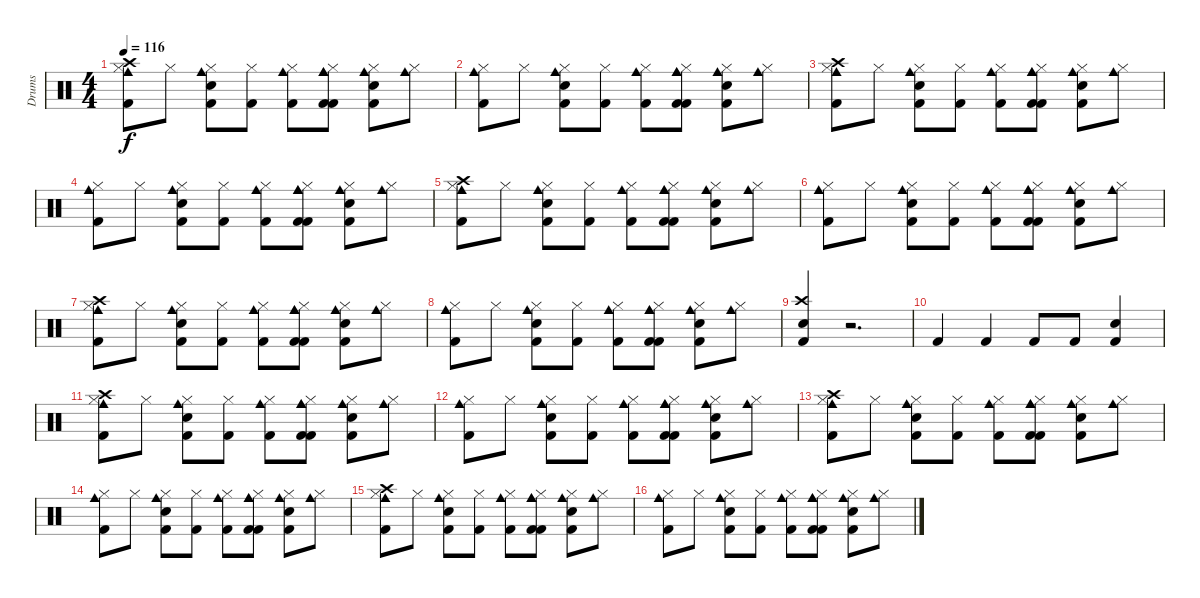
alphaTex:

\track ("Drums" "Drums") {instrument percussion}
\staff {score}
\articulation defaults
\ts (4 4)
\tempo 116
\clef neutral
\ks c
("Kick (hit) 2" "Hi-Hat (closed)" "Crash high (hit)" "Cowbell medium (hit)").8{dy f} "Hi-Hat (closed)".8 ("Snare (hit) 2" "Kick (hit) 2" "Hi-Hat (closed)" "Cowbell medium (hit)").8 ("Kick (hit) 2" "Hi-Hat (closed)").8 ("Hi-Hat (closed)" "Kick (hit) 2" "Cowbell medium (hit)").8 ("Kick (hit) 2" "Hi-Hat (closed)" "Cowbell medium (hit)" "Kick (hit) 2" "Cowbell medium (hit)").8 ("Kick (hit) 2" "Snare (hit) 2" "Hi-Hat (closed)" "Cowbell medium (hit)").8 ("Hi-Hat (closed)" "Cowbell medium (hit)").8 |
("Kick (hit) 2" "Hi-Hat (closed)" "Cowbell medium (hit)").8 "Hi-Hat (closed)".8 ("Snare (hit) 2" "Kick (hit) 2" "Hi-Hat (closed)" "Cowbell medium (hit)").8 ("Kick (hit) 2" "Hi-Hat (closed)").8 ("Hi-Hat (closed)" "Kick (hit) 2" "Cowbell medium (hit)").8 ("Kick (hit) 2" "Hi-Hat (closed)" "Cowbell medium (hit)" "Kick (hit) 2" "Cowbell medium (hit)").8 ("Kick (hit) 2" "Snare (hit) 2" "Hi-Hat (closed)" "Cowbell medium (hit)").8 ("Hi-Hat (closed)" "Cowbell medium (hit)").8 |
("Kick (hit) 2" "Hi-Hat (closed)" "Crash high (hit)" "Cowbell medium (hit)").8 "Hi-Hat (closed)".8 ("Snare (hit) 2" "Kick (hit) 2" "Hi-Hat (closed)" "Cowbell medium (hit)").8 ("Kick (hit) 2" "Hi-Hat (closed)").8 ("Hi-Hat (closed)" "Kick (hit) 2" "Cowbell medium (hit)").8 ("Kick (hit) 2" "Hi-Hat (closed)" "Cowbell medium (hit)" "Kick (hit) 2" "Cowbell medium (hit)").8 ("Kick (hit) 2" "Snare (hit) 2" "Hi-Hat (closed)" "Cowbell medium (hit)").8 ("Hi-Hat (closed)" "Cowbell medium (hit)").8 |
("Kick (hit) 2" "Hi-Hat (closed)" "Cowbell medium (hit)").8 "Hi-Hat (closed)".8 ("Snare (hit) 2" "Kick (hit) 2" "Hi-Hat (closed)" "Cowbell medium (hit)").8 ("Kick (hit) 2" "Hi-Hat (closed)").8 ("Hi-Hat (closed)" "Kick (hit) 2" "Cowbell medium (hit)").8 ("Kick (hit) 2" "Hi-Hat (closed)" "Cowbell medium (hit)" "Kick (hit) 2" "Cowbell medium (hit)").8 ("Kick (hit) 2" "Snare (hit) 2" "Hi-Hat (closed)" "Cowbell medium (hit)").8 ("Hi-Hat (closed)" "Cowbell medium (hit)").8 |
("Kick (hit) 2" "Hi-Hat (closed)" "Crash high (hit)" "Cowbell medium (hit)").8 "Hi-Hat (closed)".8 ("Snare (hit) 2" "Kick (hit) 2" "Hi-Hat (closed)" "Cowbell medium (hit)").8 ("Kick (hit) 2" "Hi-Hat (closed)").8 ("Hi-Hat (closed)" "Kick (hit) 2" "Cowbell medium (hit)").8 ("Kick (hit) 2" "Hi-Hat (closed)" "Cowbell medium (hit)" "Kick (hit) 2" "Cowbell medium (hit)").8 ("Kick (hit) 2" "Snare (hit) 2" "Hi-Hat (closed)" "Cowbell medium (hit)").8 ("Hi-Hat (closed)" "Cowbell medium (hit)").8 |
("Kick (hit) 2" "Hi-Hat (closed)" "Cowbell medium (hit)").8 "Hi-Hat (closed)".8 ("Snare (hit) 2" "Kick (hit) 2" "Hi-Hat (closed)" "Cowbell medium (hit)").8 ("Kick (hit) 2" "Hi-Hat (closed)").8 ("Hi-Hat (closed)" "Kick (hit) 2" "Cowbell medium (hit)").8 ("Kick (hit) 2" "Hi-Hat (closed)" "Cowbell medium (hit)" "Kick (hit) 2" "Cowbell medium (hit)").8 ("Kick (hit) 2" "Snare (hit) 2" "Hi-Hat (closed)" "Cowbell medium (hit)").8 ("Hi-Hat (closed)" "Cowbell medium (hit)").8 |
("Kick (hit) 2" "Hi-Hat (closed)" "Cowbell medium (hit)" "Crash high (hit)").8 "Hi-Hat (closed)".8 ("Snare (hit) 2" "Kick (hit) 2" "Hi-Hat (closed)" "Cowbell medium (hit)").8 ("Kick (hit) 2" "Hi-Hat (closed)").8 ("Hi-Hat (closed)" "Kick (hit) 2" "Cowbell medium (hit)").8 ("Kick (hit) 2" "Hi-Hat (closed)" "Cowbell medium (hit)" "Kick (hit) 2" "Cowbell medium (hit)").8 ("Kick (hit) 2" "Snare (hit) 2" "Hi-Hat (closed)" "Cowbell medium (hit)").8 ("Hi-Hat (closed)" "Cowbell medium (hit)").8 |
("Kick (hit) 2" "Hi-Hat (closed)" "Cowbell medium (hit)").8 "Hi-Hat (closed)".8 ("Snare (hit) 2" "Kick (hit) 2" "Hi-Hat (closed)" "Cowbell medium (hit)").8 ("Kick (hit) 2" "Hi-Hat (closed)").8 ("Hi-Hat (closed)" "Kick (hit) 2" "Cowbell medium (hit)").8 ("Kick (hit) 2" "Hi-Hat (closed)" "Cowbell medium (hit)" "Kick (hit) 2" "Cowbell medium (hit)").8 ("Kick (hit) 2" "Snare (hit) 2" "Hi-Hat (closed)" "Cowbell medium (hit)").8 ("Hi-Hat (closed)" "Cowbell medium (hit)").8 |
("Crash high (hit)" "Electric Snare (hit)" "Kick (hit) 2").4 r.2{d} |
"Kick (hit) 2".4 "Kick (hit) 2".4 "Kick (hit) 2".8 "Kick (hit) 2".8 ("Kick (hit) 2" "Electric Snare (hit)").4 |
("Kick (hit) 2" "Hi-Hat (closed)" "Crash high (hit)" "Cowbell medium (hit)").8 "Hi-Hat (closed)".8 ("Snare (hit) 2" "Kick (hit) 2" "Hi-Hat (closed)" "Cowbell medium (hit)").8 ("Kick (hit) 2" "Hi-Hat (closed)").8 ("Hi-Hat (closed)" "Kick (hit) 2" "Cowbell medium (hit)").8 ("Kick (hit) 2" "Hi-Hat (closed)" "Cowbell medium (hit)" "Kick (hit) 2" "Cowbell medium (hit)").8 ("Kick (hit) 2" "Snare (hit) 2" "Hi-Hat (closed)" "Cowbell medium (hit)").8 ("Hi-Hat (closed)" "Cowbell medium (hit)").8 |
("Kick (hit) 2" "Hi-Hat (closed)" "Cowbell medium (hit)").8 "Hi-Hat (closed)".8 ("Snare (hit) 2" "Kick (hit) 2" "Hi-Hat (closed)" "Cowbell medium (hit)").8 ("Kick (hit) 2" "Hi-Hat (closed)").8 ("Hi-Hat (closed)" "Kick (hit) 2" "Cowbell medium (hit)").8 ("Kick (hit) 2" "Hi-Hat (closed)" "Cowbell medium (hit)" "Kick (hit) 2" "Cowbell medium (hit)").8 ("Kick (hit) 2" "Snare (hit) 2" "Hi-Hat (closed)" "Cowbell medium (hit)").8 ("Hi-Hat (closed)" "Cowbell medium (hit)").8 |
("Kick (hit) 2" "Hi-Hat (closed)" "Crash high (hit)" "Cowbell medium (hit)").8 "Hi-Hat (closed)".8 ("Snare (hit) 2" "Kick (hit) 2" "Hi-Hat (closed)" "Cowbell medium (hit)").8 ("Kick (hit) 2" "Hi-Hat (closed)").8 ("Hi-Hat (closed)" "Kick (hit) 2" "Cowbell medium (hit)").8 ("Kick (hit) 2" "Hi-Hat (closed)" "Cowbell medium (hit)" "Kick (hit) 2" "Cowbell medium (hit)").8 ("Kick (hit) 2" "Snare (hit) 2" "Hi-Hat (closed)" "Cowbell medium (hit)").8 ("Hi-Hat (closed)" "Cowbell medium (hit)").8 |
("Kick (hit) 2" "Hi-Hat (closed)" "Cowbell medium (hit)").8 "Hi-Hat (closed)".8 ("Snare (hit) 2" "Kick (hit) 2" "Hi-Hat (closed)" "Cowbell medium (hit)").8 ("Kick (hit) 2" "Hi-Hat (closed)").8 ("Hi-Hat (closed)" "Kick (hit) 2" "Cowbell medium (hit)").8 ("Kick (hit) 2" "Hi-Hat (closed)" "Cowbell medium (hit)" "Kick (hit) 2" "Cowbell medium (hit)").8 ("Kick (hit) 2" "Snare (hit) 2" "Hi-Hat (closed)" "Cowbell medium (hit)").8 ("Hi-Hat (closed)" "Cowbell medium (hit)").8 |
("Kick (hit) 2" "Hi-Hat (closed)" "Cowbell medium (hit)" "Crash high (hit)").8 "Hi-Hat (closed)".8 ("Snare (hit) 2" "Kick (hit) 2" "Hi-Hat (closed)" "Cowbell medium (hit)").8 ("Kick (hit) 2" "Hi-Hat (closed)").8 ("Hi-Hat (closed)" "Kick (hit) 2" "Cowbell medium (hit)").8 ("Kick (hit) 2" "Hi-Hat (closed)" "Cowbell medium (hit)" "Kick (hit) 2" "Cowbell medium (hit)").8 ("Kick (hit) 2" "Snare (hit) 2" "Hi-Hat (closed)" "Cowbell medium (hit)").8 ("Hi-Hat (closed)" "Cowbell medium (hit)").8 |
("Kick (hit) 2" "Hi-Hat (closed)" "Cowbell medium (hit)").8 "Hi-Hat (closed)".8 ("Snare (hit) 2" "Kick (hit) 2" "Hi-Hat (closed)" "Cowbell medium (hit)").8 ("Kick (hit) 2" "Hi-Hat (closed)").8 ("Hi-Hat (closed)" "Kick (hit) 2" "Cowbell medium (hit)").8 ("Kick (hit) 2" "Hi-Hat (closed)" "Cowbell medium (hit)" "Kick (hit) 2" "Cowbell medium (hit)").8 ("Kick (hit) 2" "Snare (hit) 2" "Hi-Hat (closed)" "Cowbell medium (hit)").8 ("Hi-Hat (closed)" "Cowbell medium (hit)").8
